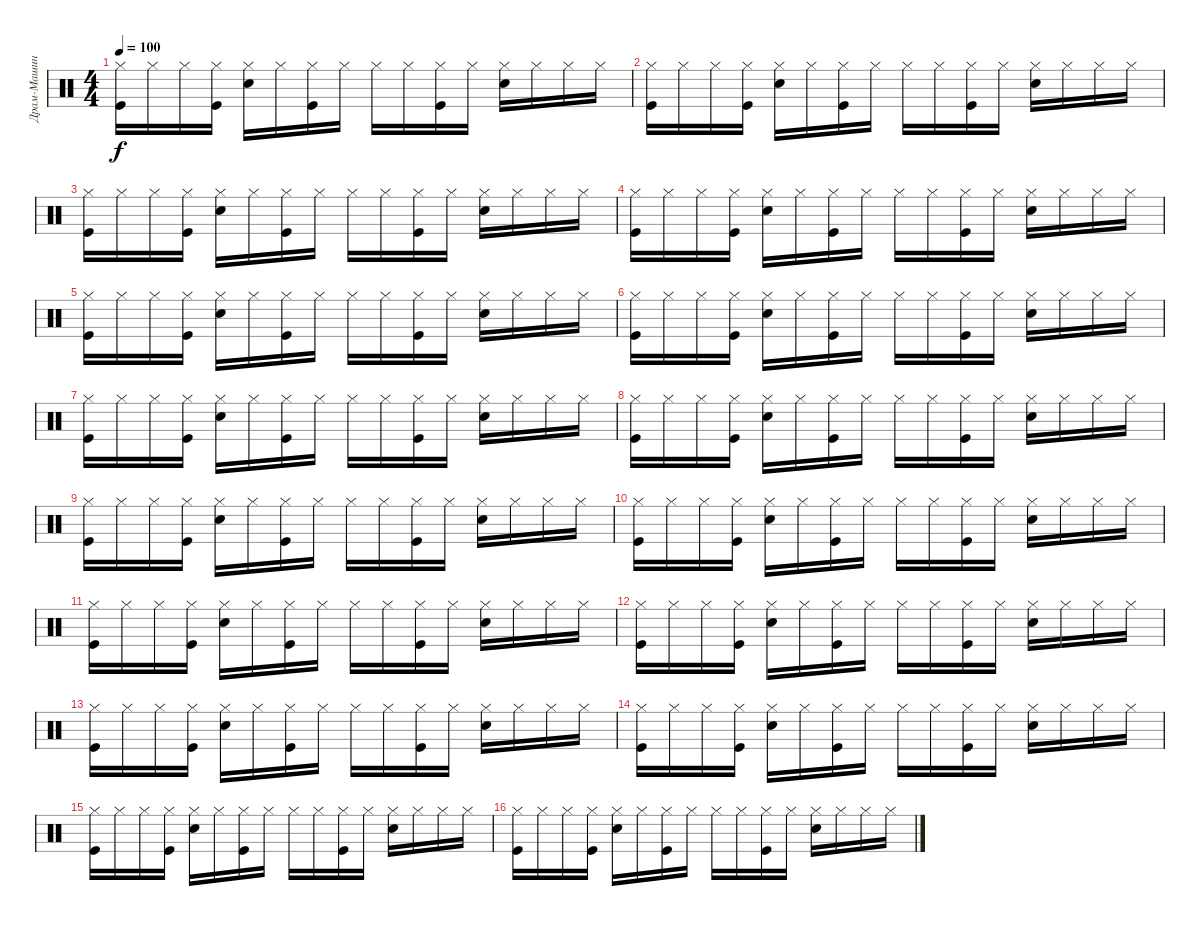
\track ("Драм-Машина" "Драм-Машин") {instrument percussion}
\staff {score}
\articulation defaults
\ts (4 4)
\tempo 100
\clef neutral
\ks c
("Kick (hit)" "Hi-Hat (closed)").16{dy f} "Hi-Hat (closed)".16 "Hi-Hat (closed)".16 ("Kick (hit)" "Hi-Hat (closed)").16 ("Electric Snare (hit)" "Hi-Hat (closed)").16 "Hi-Hat (closed)".16 ("Kick (hit)" "Hi-Hat (closed)").16 "Hi-Hat (closed)".16 "Hi-Hat (closed)".16 "Hi-Hat (closed)".16 ("Kick (hit)" "Hi-Hat (closed)").16 "Hi-Hat (closed)".16 ("Electric Snare (hit)" "Hi-Hat (closed)").16 "Hi-Hat (closed)".16 "Hi-Hat (closed)".16 "Hi-Hat (closed)".16 |
("Kick (hit)" "Hi-Hat (closed)").16 "Hi-Hat (closed)".16 "Hi-Hat (closed)".16 ("Kick (hit)" "Hi-Hat (closed)").16 ("Electric Snare (hit)" "Hi-Hat (closed)").16 "Hi-Hat (closed)".16 ("Kick (hit)" "Hi-Hat (closed)").16 "Hi-Hat (closed)".16 "Hi-Hat (closed)".16 "Hi-Hat (closed)".16 ("Kick (hit)" "Hi-Hat (closed)").16 "Hi-Hat (closed)".16 ("Electric Snare (hit)" "Hi-Hat (closed)").16 "Hi-Hat (closed)".16 "Hi-Hat (closed)".16 "Hi-Hat (closed)".16 |
("Kick (hit)" "Hi-Hat (closed)").16 "Hi-Hat (closed)".16 "Hi-Hat (closed)".16 ("Kick (hit)" "Hi-Hat (closed)").16 ("Electric Snare (hit)" "Hi-Hat (closed)").16 "Hi-Hat (closed)".16 ("Kick (hit)" "Hi-Hat (closed)").16 "Hi-Hat (closed)".16 "Hi-Hat (closed)".16 "Hi-Hat (closed)".16 ("Kick (hit)" "Hi-Hat (closed)").16 "Hi-Hat (closed)".16 ("Electric Snare (hit)" "Hi-Hat (closed)").16 "Hi-Hat (closed)".16 "Hi-Hat (closed)".16 "Hi-Hat (closed)".16 |
("Kick (hit)" "Hi-Hat (closed)").16 "Hi-Hat (closed)".16 "Hi-Hat (closed)".16 ("Kick (hit)" "Hi-Hat (closed)").16 ("Electric Snare (hit)" "Hi-Hat (closed)").16 "Hi-Hat (closed)".16 ("Kick (hit)" "Hi-Hat (closed)").16 "Hi-Hat (closed)".16 "Hi-Hat (closed)".16 "Hi-Hat (closed)".16 ("Kick (hit)" "Hi-Hat (closed)").16 "Hi-Hat (closed)".16 ("Electric Snare (hit)" "Hi-Hat (closed)").16 "Hi-Hat (closed)".16 "Hi-Hat (closed)".16 "Hi-Hat (closed)".16 |
("Kick (hit)" "Hi-Hat (closed)").16 "Hi-Hat (closed)".16 "Hi-Hat (closed)".16 ("Kick (hit)" "Hi-Hat (closed)").16 ("Electric Snare (hit)" "Hi-Hat (closed)").16 "Hi-Hat (closed)".16 ("Kick (hit)" "Hi-Hat (closed)").16 "Hi-Hat (closed)".16 "Hi-Hat (closed)".16 "Hi-Hat (closed)".16 ("Kick (hit)" "Hi-Hat (closed)").16 "Hi-Hat (closed)".16 ("Electric Snare (hit)" "Hi-Hat (closed)").16 "Hi-Hat (closed)".16 "Hi-Hat (closed)".16 "Hi-Hat (closed)".16 |
("Kick (hit)" "Hi-Hat (closed)").16 "Hi-Hat (closed)".16 "Hi-Hat (closed)".16 ("Kick (hit)" "Hi-Hat (closed)").16 ("Electric Snare (hit)" "Hi-Hat (closed)").16 "Hi-Hat (closed)".16 ("Kick (hit)" "Hi-Hat (closed)").16 "Hi-Hat (closed)".16 "Hi-Hat (closed)".16 "Hi-Hat (closed)".16 ("Kick (hit)" "Hi-Hat (closed)").16 "Hi-Hat (closed)".16 ("Electric Snare (hit)" "Hi-Hat (closed)").16 "Hi-Hat (closed)".16 "Hi-Hat (closed)".16 "Hi-Hat (closed)".16 |
("Kick (hit)" "Hi-Hat (closed)").16 "Hi-Hat (closed)".16 "Hi-Hat (closed)".16 ("Kick (hit)" "Hi-Hat (closed)").16 ("Electric Snare (hit)" "Hi-Hat (closed)").16 "Hi-Hat (closed)".16 ("Kick (hit)" "Hi-Hat (closed)").16 "Hi-Hat (closed)".16 "Hi-Hat (closed)".16 "Hi-Hat (closed)".16 ("Kick (hit)" "Hi-Hat (closed)").16 "Hi-Hat (closed)".16 ("Electric Snare (hit)" "Hi-Hat (closed)").16 "Hi-Hat (closed)".16 "Hi-Hat (closed)".16 "Hi-Hat (closed)".16 |
("Kick (hit)" "Hi-Hat (closed)").16 "Hi-Hat (closed)".16 "Hi-Hat (closed)".16 ("Kick (hit)" "Hi-Hat (closed)").16 ("Electric Snare (hit)" "Hi-Hat (closed)").16 "Hi-Hat (closed)".16 ("Kick (hit)" "Hi-Hat (closed)").16 "Hi-Hat (closed)".16 "Hi-Hat (closed)".16 "Hi-Hat (closed)".16 ("Kick (hit)" "Hi-Hat (closed)").16 "Hi-Hat (closed)".16 ("Electric Snare (hit)" "Hi-Hat (closed)").16 "Hi-Hat (closed)".16 "Hi-Hat (closed)".16 "Hi-Hat (closed)".16 |
("Kick (hit)" "Hi-Hat (closed)").16 "Hi-Hat (closed)".16 "Hi-Hat (closed)".16 ("Kick (hit)" "Hi-Hat (closed)").16 ("Electric Snare (hit)" "Hi-Hat (closed)").16 "Hi-Hat (closed)".16 ("Kick (hit)" "Hi-Hat (closed)").16 "Hi-Hat (closed)".16 "Hi-Hat (closed)".16 "Hi-Hat (closed)".16 ("Kick (hit)" "Hi-Hat (closed)").16 "Hi-Hat (closed)".16 ("Electric Snare (hit)" "Hi-Hat (closed)").16 "Hi-Hat (closed)".16 "Hi-Hat (closed)".16 "Hi-Hat (closed)".16 |
("Kick (hit)" "Hi-Hat (closed)").16 "Hi-Hat (closed)".16 "Hi-Hat (closed)".16 ("Kick (hit)" "Hi-Hat (closed)").16 ("Electric Snare (hit)" "Hi-Hat (closed)").16 "Hi-Hat (closed)".16 ("Kick (hit)" "Hi-Hat (closed)").16 "Hi-Hat (closed)".16 "Hi-Hat (closed)".16 "Hi-Hat (closed)".16 ("Kick (hit)" "Hi-Hat (closed)").16 "Hi-Hat (closed)".16 ("Electric Snare (hit)" "Hi-Hat (closed)").16 "Hi-Hat (closed)".16 "Hi-Hat (closed)".16 "Hi-Hat (closed)".16 |
("Kick (hit)" "Hi-Hat (closed)").16 "Hi-Hat (closed)".16 "Hi-Hat (closed)".16 ("Kick (hit)" "Hi-Hat (closed)").16 ("Electric Snare (hit)" "Hi-Hat (closed)").16 "Hi-Hat (closed)".16 ("Kick (hit)" "Hi-Hat (closed)").16 "Hi-Hat (closed)".16 "Hi-Hat (closed)".16 "Hi-Hat (closed)".16 ("Kick (hit)" "Hi-Hat (closed)").16 "Hi-Hat (closed)".16 ("Electric Snare (hit)" "Hi-Hat (closed)").16 "Hi-Hat (closed)".16 "Hi-Hat (closed)".16 "Hi-Hat (closed)".16 |
("Kick (hit)" "Hi-Hat (closed)").16 "Hi-Hat (closed)".16 "Hi-Hat (closed)".16 ("Kick (hit)" "Hi-Hat (closed)").16 ("Electric Snare (hit)" "Hi-Hat (closed)").16 "Hi-Hat (closed)".16 ("Kick (hit)" "Hi-Hat (closed)").16 "Hi-Hat (closed)".16 "Hi-Hat (closed)".16 "Hi-Hat (closed)".16 ("Kick (hit)" "Hi-Hat (closed)").16 "Hi-Hat (closed)".16 ("Electric Snare (hit)" "Hi-Hat (closed)").16 "Hi-Hat (closed)".16 "Hi-Hat (closed)".16 "Hi-Hat (closed)".16 |
("Kick (hit)" "Hi-Hat (closed)").16 "Hi-Hat (closed)".16 "Hi-Hat (closed)".16 ("Kick (hit)" "Hi-Hat (closed)").16 ("Electric Snare (hit)" "Hi-Hat (closed)").16 "Hi-Hat (closed)".16 ("Kick (hit)" "Hi-Hat (closed)").16 "Hi-Hat (closed)".16 "Hi-Hat (closed)".16 "Hi-Hat (closed)".16 ("Kick (hit)" "Hi-Hat (closed)").16 "Hi-Hat (closed)".16 ("Electric Snare (hit)" "Hi-Hat (closed)").16 "Hi-Hat (closed)".16 "Hi-Hat (closed)".16 "Hi-Hat (closed)".16 |
("Kick (hit)" "Hi-Hat (closed)").16 "Hi-Hat (closed)".16 "Hi-Hat (closed)".16 ("Kick (hit)" "Hi-Hat (closed)").16 ("Electric Snare (hit)" "Hi-Hat (closed)").16 "Hi-Hat (closed)".16 ("Kick (hit)" "Hi-Hat (closed)").16 "Hi-Hat (closed)".16 "Hi-Hat (closed)".16 "Hi-Hat (closed)".16 ("Kick (hit)" "Hi-Hat (closed)").16 "Hi-Hat (closed)".16 ("Electric Snare (hit)" "Hi-Hat (closed)").16 "Hi-Hat (closed)".16 "Hi-Hat (closed)".16 "Hi-Hat (closed)".16 |
("Kick (hit)" "Hi-Hat (closed)").16 "Hi-Hat (closed)".16 "Hi-Hat (closed)".16 ("Kick (hit)" "Hi-Hat (closed)").16 ("Electric Snare (hit)" "Hi-Hat (closed)").16 "Hi-Hat (closed)".16 ("Kick (hit)" "Hi-Hat (closed)").16 "Hi-Hat (closed)".16 "Hi-Hat (closed)".16 "Hi-Hat (closed)".16 ("Kick (hit)" "Hi-Hat (closed)").16 "Hi-Hat (closed)".16 ("Electric Snare (hit)" "Hi-Hat (closed)").16 "Hi-Hat (closed)".16 "Hi-Hat (closed)".16 "Hi-Hat (closed)".16 |
("Kick (hit)" "Hi-Hat (closed)").16 "Hi-Hat (closed)".16 "Hi-Hat (closed)".16 ("Kick (hit)" "Hi-Hat (closed)").16 ("Electric Snare (hit)" "Hi-Hat (closed)").16 "Hi-Hat (closed)".16 ("Kick (hit)" "Hi-Hat (closed)").16 "Hi-Hat (closed)".16 "Hi-Hat (closed)".16 "Hi-Hat (closed)".16 ("Kick (hit)" "Hi-Hat (closed)").16 "Hi-Hat (closed)".16 ("Electric Snare (hit)" "Hi-Hat (closed)").16 "Hi-Hat (closed)".16 "Hi-Hat (closed)".16 "Hi-Hat (closed)".16
